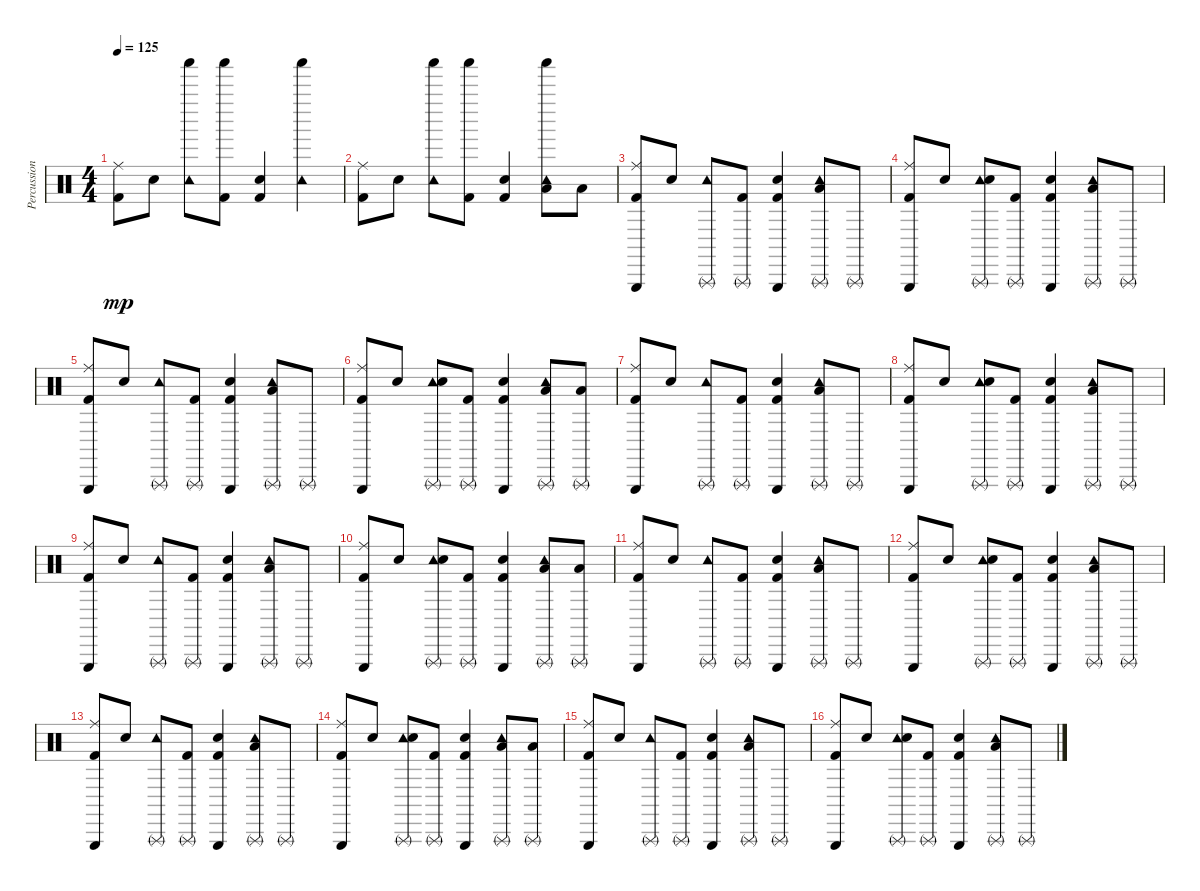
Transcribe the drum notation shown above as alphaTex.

\track ("Percussion" "Percussion") {instrument percussion}
\staff {score}
\articulation defaults
\ts (4 4)
\tempo 125
\clef neutral
\ks c
("Ride (middle)" "Kick (hit) 2").8{dy mp} "Snare (hit) 2".8 ("Shaker (hit)" "Tambourine (hit)").8 ("Shaker (hit)" "Kick (hit) 2").8 ("Kick (hit) 2" "Snare (hit) 2").4 ("Tambourine (hit)" "Shaker (hit)").4 |
("Ride (middle)" "Kick (hit) 2").8 "Snare (hit) 2".8 ("Shaker (hit)" "Tambourine (hit)").8 ("Shaker (hit)" "Kick (hit) 2").8 ("Kick (hit) 2" "Snare (hit) 2").4 ("Tambourine (hit)" "Shaker (hit)" "Low Tom (hit)").8 "Low Tom (hit)".8 |
("Triangle (hit)" "Ride (middle)" "Kick (hit) 2").8 "Snare (hit) 2".8 ("Triangle (rnute)" "Tambourine (hit)").8 ("Triangle (rnute)" "Kick (hit) 2").8 ("Triangle (hit)" "Kick (hit) 2" "Snare (hit) 2").4 ("Tambourine (hit)" "Low Tom (hit)" "Triangle (rnute)").8 "Triangle (rnute)".8 |
("Triangle (hit)" "Ride (middle)" "Kick (hit) 2").8 "Snare (hit) 2".8 ("Triangle (rnute)" "Tambourine (hit)" "Snare (hit) 2").8 ("Triangle (rnute)" "Kick (hit) 2").8 ("Triangle (hit)" "Kick (hit) 2" "Snare (hit) 2").4 ("Tambourine (hit)" "Low Tom (hit)" "Triangle (rnute)").8 "Triangle (rnute)".8 |
("Triangle (hit)" "Ride (middle)" "Kick (hit) 2").8 "Snare (hit) 2".8 ("Triangle (rnute)" "Tambourine (hit)").8 ("Triangle (rnute)" "Kick (hit) 2").8 ("Triangle (hit)" "Kick (hit) 2" "Snare (hit) 2").4 ("Tambourine (hit)" "Low Tom (hit)" "Triangle (rnute)").8 "Triangle (rnute)".8 |
("Triangle (hit)" "Ride (middle)" "Kick (hit) 2").8 "Snare (hit) 2".8 ("Triangle (rnute)" "Tambourine (hit)" "Snare (hit) 2").8 ("Triangle (rnute)" "Kick (hit) 2").8 ("Triangle (hit)" "Kick (hit) 2" "Snare (hit) 2").4 ("Tambourine (hit)" "Triangle (rnute)" "Low Tom (hit)").8 ("Low Tom (hit)" "Triangle (rnute)").8 |
("Triangle (hit)" "Ride (middle)" "Kick (hit) 2").8 "Snare (hit) 2".8 ("Triangle (rnute)" "Tambourine (hit)").8 ("Triangle (rnute)" "Kick (hit) 2").8 ("Triangle (hit)" "Kick (hit) 2" "Snare (hit) 2").4 ("Tambourine (hit)" "Low Tom (hit)" "Triangle (rnute)").8 "Triangle (rnute)".8 |
("Triangle (hit)" "Ride (middle)" "Kick (hit) 2").8 "Snare (hit) 2".8 ("Triangle (rnute)" "Tambourine (hit)" "Snare (hit) 2").8 ("Triangle (rnute)" "Kick (hit) 2").8 ("Triangle (hit)" "Kick (hit) 2" "Snare (hit) 2").4 ("Tambourine (hit)" "Low Tom (hit)" "Triangle (rnute)").8 "Triangle (rnute)".8 |
("Triangle (hit)" "Ride (middle)" "Kick (hit) 2").8 "Snare (hit) 2".8 ("Triangle (rnute)" "Tambourine (hit)").8 ("Triangle (rnute)" "Kick (hit) 2").8 ("Triangle (hit)" "Kick (hit) 2" "Snare (hit) 2").4 ("Tambourine (hit)" "Low Tom (hit)" "Triangle (rnute)").8 "Triangle (rnute)".8 |
("Triangle (hit)" "Ride (middle)" "Kick (hit) 2").8 "Snare (hit) 2".8 ("Triangle (rnute)" "Tambourine (hit)" "Snare (hit) 2").8 ("Triangle (rnute)" "Kick (hit) 2").8 ("Triangle (hit)" "Kick (hit) 2" "Snare (hit) 2").4 ("Tambourine (hit)" "Triangle (rnute)" "Low Tom (hit)").8 ("Low Tom (hit)" "Triangle (rnute)").8 |
("Triangle (hit)" "Ride (middle)" "Kick (hit) 2").8 "Snare (hit) 2".8 ("Triangle (rnute)" "Tambourine (hit)").8 ("Triangle (rnute)" "Kick (hit) 2").8 ("Triangle (hit)" "Kick (hit) 2" "Snare (hit) 2").4 ("Tambourine (hit)" "Low Tom (hit)" "Triangle (rnute)").8 "Triangle (rnute)".8 |
("Triangle (hit)" "Ride (middle)" "Kick (hit) 2").8 "Snare (hit) 2".8 ("Triangle (rnute)" "Tambourine (hit)" "Snare (hit) 2").8 ("Triangle (rnute)" "Kick (hit) 2").8 ("Triangle (hit)" "Kick (hit) 2" "Snare (hit) 2").4 ("Tambourine (hit)" "Low Tom (hit)" "Triangle (rnute)").8 "Triangle (rnute)".8 |
("Triangle (hit)" "Ride (middle)" "Kick (hit) 2").8 "Snare (hit) 2".8 ("Triangle (rnute)" "Tambourine (hit)").8 ("Triangle (rnute)" "Kick (hit) 2").8 ("Triangle (hit)" "Kick (hit) 2" "Snare (hit) 2").4 ("Tambourine (hit)" "Low Tom (hit)" "Triangle (rnute)").8 "Triangle (rnute)".8 |
("Triangle (hit)" "Ride (middle)" "Kick (hit) 2").8 "Snare (hit) 2".8 ("Triangle (rnute)" "Tambourine (hit)" "Snare (hit) 2").8 ("Triangle (rnute)" "Kick (hit) 2").8 ("Triangle (hit)" "Kick (hit) 2" "Snare (hit) 2").4 ("Tambourine (hit)" "Triangle (rnute)" "Low Tom (hit)").8 ("Low Tom (hit)" "Triangle (rnute)").8 |
("Triangle (hit)" "Ride (middle)" "Kick (hit) 2").8 "Snare (hit) 2".8 ("Triangle (rnute)" "Tambourine (hit)").8 ("Triangle (rnute)" "Kick (hit) 2").8 ("Triangle (hit)" "Kick (hit) 2" "Snare (hit) 2").4 ("Tambourine (hit)" "Low Tom (hit)" "Triangle (rnute)").8 "Triangle (rnute)".8 |
("Triangle (hit)" "Ride (middle)" "Kick (hit) 2").8 "Snare (hit) 2".8 ("Triangle (rnute)" "Tambourine (hit)" "Snare (hit) 2").8 ("Triangle (rnute)" "Kick (hit) 2").8 ("Triangle (hit)" "Kick (hit) 2" "Snare (hit) 2").4 ("Tambourine (hit)" "Low Tom (hit)" "Triangle (rnute)").8 "Triangle (rnute)".8
